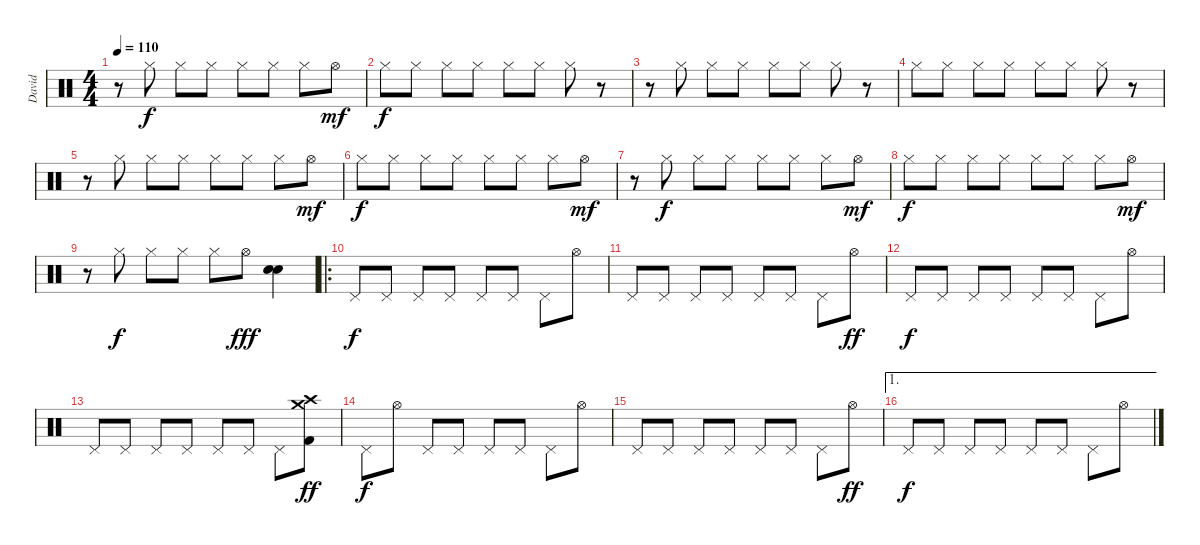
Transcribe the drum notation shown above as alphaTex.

\track ("David" "David") {instrument percussion}
\staff {score}
\articulation defaults
\ts (4 4)
\tempo 110
\clef neutral
\ks c
r.8{dy f} "Hi-Hat (closed)".8 "Hi-Hat (closed)".8 "Hi-Hat (closed)".8 "Hi-Hat (closed)".8 "Hi-Hat (closed)".8 "Hi-Hat (closed)".8 "Hi-Hat (open)".8{dy mf} |
"Hi-Hat (closed)".8{dy f} "Hi-Hat (closed)".8 "Hi-Hat (closed)".8 "Hi-Hat (closed)".8 "Hi-Hat (closed)".8 "Hi-Hat (closed)".8 "Hi-Hat (closed)".8 r.8 |
r.8 "Hi-Hat (closed)".8 "Hi-Hat (closed)".8 "Hi-Hat (closed)".8 "Hi-Hat (closed)".8 "Hi-Hat (closed)".8 "Hi-Hat (closed)".8 r.8 |
"Hi-Hat (closed)".8 "Hi-Hat (closed)".8 "Hi-Hat (closed)".8 "Hi-Hat (closed)".8 "Hi-Hat (closed)".8 "Hi-Hat (closed)".8 "Hi-Hat (closed)".8 r.8 |
r.8 "Hi-Hat (closed)".8 "Hi-Hat (closed)".8 "Hi-Hat (closed)".8 "Hi-Hat (closed)".8 "Hi-Hat (closed)".8 "Hi-Hat (closed)".8 "Hi-Hat (open)".8{dy mf} |
"Hi-Hat (closed)".8{dy f} "Hi-Hat (closed)".8 "Hi-Hat (closed)".8 "Hi-Hat (closed)".8 "Hi-Hat (closed)".8 "Hi-Hat (closed)".8 "Hi-Hat (closed)".8 "Hi-Hat (open)".8{dy mf} |
r.8 "Hi-Hat (closed)".8{dy f} "Hi-Hat (closed)".8 "Hi-Hat (closed)".8 "Hi-Hat (closed)".8 "Hi-Hat (closed)".8 "Hi-Hat (closed)".8 "Hi-Hat (open)".8{dy mf} |
"Hi-Hat (closed)".8{dy f} "Hi-Hat (closed)".8 "Hi-Hat (closed)".8 "Hi-Hat (closed)".8 "Hi-Hat (closed)".8 "Hi-Hat (closed)".8 "Hi-Hat (closed)".8 "Hi-Hat (open)".8{dy mf} |
r.8 "Hi-Hat (closed)".8{dy f} "Hi-Hat (closed)".8 "Hi-Hat (closed)".8 "Hi-Hat (closed)".8 "Hi-Hat (open)".8{dy fff} ("Snare (hit) 2" "Snare (hit) 2").4 |
\ro "Pedal Hi-Hat (hit)".8{dy f} "Pedal Hi-Hat (hit)".8 "Pedal Hi-Hat (hit)".8 "Pedal Hi-Hat (hit)".8 "Pedal Hi-Hat (hit)".8 "Pedal Hi-Hat (hit)".8 "Pedal Hi-Hat (hit)".8 "Hi-Hat (open)".8
|
"Pedal Hi-Hat (hit)".8 "Pedal Hi-Hat (hit)".8 "Pedal Hi-Hat (hit)".8 "Pedal Hi-Hat (hit)".8 "Pedal Hi-Hat (hit)".8 "Pedal Hi-Hat (hit)".8 "Pedal Hi-Hat (hit)".8 "Hi-Hat (open)".8{dy ff} |
"Pedal Hi-Hat (hit)".8{dy f} "Pedal Hi-Hat (hit)".8 "Pedal Hi-Hat (hit)".8 "Pedal Hi-Hat (hit)".8 "Pedal Hi-Hat (hit)".8 "Pedal Hi-Hat (hit)".8 "Pedal Hi-Hat (hit)".8 "Hi-Hat (open)".8 |
"Pedal Hi-Hat (hit)".8 "Pedal Hi-Hat (hit)".8 "Pedal Hi-Hat (hit)".8 "Pedal Hi-Hat (hit)".8 "Pedal Hi-Hat (hit)".8 "Pedal Hi-Hat (hit)".8 "Pedal Hi-Hat (hit)".8 ("Crash high (hit)" "Crash medium (hit)" "Kick (hit) 2").8{dy ff} |
"Pedal Hi-Hat (hit)".8{dy f} "Hi-Hat (open)".8 "Pedal Hi-Hat (hit)".8 "Pedal Hi-Hat (hit)".8 "Pedal Hi-Hat (hit)".8 "Pedal Hi-Hat (hit)".8 "Pedal Hi-Hat (hit)".8 "Hi-Hat (open)".8 |
"Pedal Hi-Hat (hit)".8 "Pedal Hi-Hat (hit)".8 "Pedal Hi-Hat (hit)".8 "Pedal Hi-Hat (hit)".8 "Pedal Hi-Hat (hit)".8 "Pedal Hi-Hat (hit)".8 "Pedal Hi-Hat (hit)".8 "Hi-Hat (open)".8{dy ff} |
\ae 1 "Pedal Hi-Hat (hit)".8{dy f} "Pedal Hi-Hat (hit)".8 "Pedal Hi-Hat (hit)".8 "Pedal Hi-Hat (hit)".8 "Pedal Hi-Hat (hit)".8 "Pedal Hi-Hat (hit)".8 "Pedal Hi-Hat (hit)".8 "Hi-Hat (open)".8
